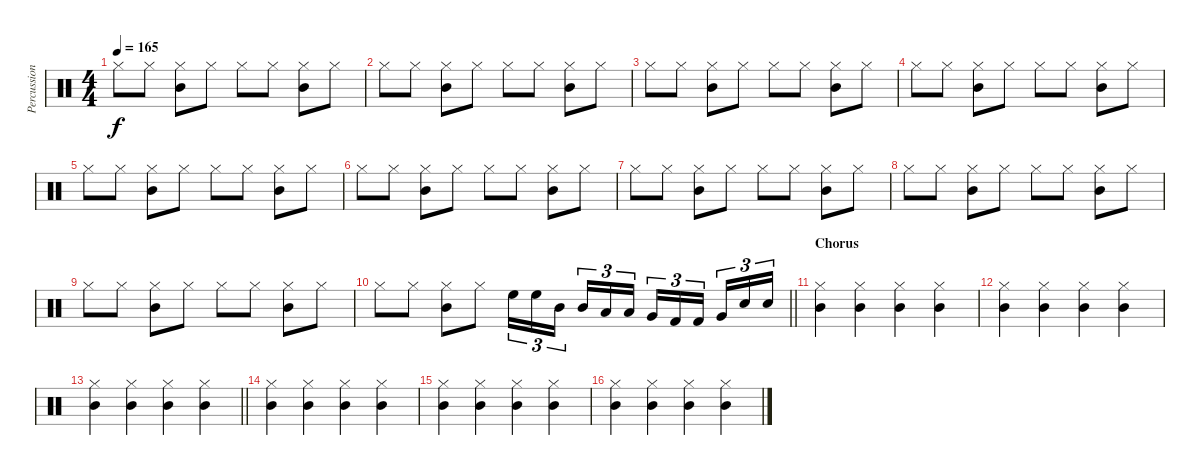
\track ("Percussion Improvisation" "Percussion") {instrument percussion}
\staff {score}
\articulation defaults
\ts (4 4)
\tempo 165
\clef neutral
\ks c "Hi-Hat (closed)".8{dy f} "Hi-Hat (closed)".8
("Hi-Hat (closed)" "Mid Tom (hit)").8 "Hi-Hat (closed)".8 "Hi-Hat (closed)".8 "Hi-Hat (closed)".8 ("Hi-Hat (closed)" "Mid Tom (hit)").8 "Hi-Hat (closed)".8 |
"Hi-Hat (closed)".8 "Hi-Hat (closed)".8 ("Hi-Hat (closed)" "Mid Tom (hit)").8 "Hi-Hat (closed)".8 "Hi-Hat (closed)".8 "Hi-Hat (closed)".8 ("Hi-Hat (closed)" "Mid Tom (hit)").8 "Hi-Hat (closed)".8 |
"Hi-Hat (closed)".8 "Hi-Hat (closed)".8 ("Hi-Hat (closed)" "Mid Tom (hit)").8 "Hi-Hat (closed)".8 "Hi-Hat (closed)".8 "Hi-Hat (closed)".8 ("Hi-Hat (closed)" "Mid Tom (hit)").8 "Hi-Hat (closed)".8 |
"Hi-Hat (closed)".8 "Hi-Hat (closed)".8 ("Hi-Hat (closed)" "Mid Tom (hit)").8 "Hi-Hat (closed)".8 "Hi-Hat (closed)".8 "Hi-Hat (closed)".8 ("Hi-Hat (closed)" "Mid Tom (hit)").8 "Hi-Hat (closed)".8 |
"Hi-Hat (closed)".8 "Hi-Hat (closed)".8 ("Hi-Hat (closed)" "Mid Tom (hit)").8 "Hi-Hat (closed)".8 "Hi-Hat (closed)".8 "Hi-Hat (closed)".8 ("Hi-Hat (closed)" "Mid Tom (hit)").8 "Hi-Hat (closed)".8 |
"Hi-Hat (closed)".8 "Hi-Hat (closed)".8 ("Hi-Hat (closed)" "Mid Tom (hit)").8 "Hi-Hat (closed)".8 "Hi-Hat (closed)".8 "Hi-Hat (closed)".8 ("Hi-Hat (closed)" "Mid Tom (hit)").8 "Hi-Hat (closed)".8 |
"Hi-Hat (closed)".8 "Hi-Hat (closed)".8 ("Hi-Hat (closed)" "Mid Tom (hit)").8 "Hi-Hat (closed)".8 "Hi-Hat (closed)".8 "Hi-Hat (closed)".8 ("Hi-Hat (closed)" "Mid Tom (hit)").8 "Hi-Hat (closed)".8 |
"Hi-Hat (closed)".8 "Hi-Hat (closed)".8 ("Hi-Hat (closed)" "Mid Tom (hit)").8 "Hi-Hat (closed)".8 "Hi-Hat (closed)".8 "Hi-Hat (closed)".8 ("Hi-Hat (closed)" "Mid Tom (hit)").8 "Hi-Hat (closed)".8 |
"Hi-Hat (closed)".8 "Hi-Hat (closed)".8 ("Hi-Hat (closed)" "Mid Tom (hit)").8 "Hi-Hat (closed)".8 "Hi-Hat (closed)".8 "Hi-Hat (closed)".8 ("Hi-Hat (closed)" "Mid Tom (hit)").8 "Hi-Hat (closed)".8 |
\barLineRight lightlight "Hi-Hat (closed)".8 "Hi-Hat (closed)".8
("Hi-Hat (closed)" "Mid Tom (hit)").8 "Hi-Hat (closed)".8 "High Floor Tom (hit)".16{tu (3 2)} "High Floor Tom (hit)".16{tu (3 2)} "Mid Tom (hit)".16{tu (3 2) beam splitsecondary} "Mid Tom (hit)".16{tu (3 2)} "Low Tom (hit)".16{tu (3 2)} "Low Tom (hit)".16{tu (3 2)} "Very Low Tom (hit)".16{tu (3 2)} "Kick (hit) 2".16{tu (3 2)} "Kick (hit) 2".16{tu (3 2) beam splitsecondary} "Very Low Tom (hit)".16{tu (3 2)} "Snare (hit) 2".16{tu (3 2)} "Snare (hit) 2".16{tu (3 2)} |
\section ("" "Chorus")
("Mid Tom (hit)" "Hi-Hat (closed)").4 ("Hi-Hat (closed)" "Mid Tom (hit)").4 ("Hi-Hat (closed)" "Mid Tom (hit)").4 ("Mid Tom (hit)" "Hi-Hat (closed)").4 |
("Hi-Hat (closed)" "Mid Tom (hit)").4 ("Mid Tom (hit)" "Hi-Hat (closed)").4 ("Hi-Hat (closed)" "Mid Tom (hit)").4 ("Hi-Hat (closed)" "Mid Tom (hit)").4 |
\barLineRight lightlight
("Hi-Hat (closed)" "Mid Tom (hit)").4 ("Mid Tom (hit)" "Hi-Hat (closed)").4 ("Hi-Hat (closed)" "Mid Tom (hit)").4 ("Hi-Hat (closed)" "Mid Tom (hit)").4 |
("Hi-Hat (closed)" "Mid Tom (hit)").4 ("Mid Tom (hit)" "Hi-Hat (closed)").4 ("Hi-Hat (closed)" "Mid Tom (hit)").4 ("Hi-Hat (closed)" "Mid Tom (hit)").4 |
("Hi-Hat (closed)" "Mid Tom (hit)").4 ("Mid Tom (hit)" "Hi-Hat (closed)").4 ("Hi-Hat (closed)" "Mid Tom (hit)").4 ("Hi-Hat (closed)" "Mid Tom (hit)").4 |
("Hi-Hat (closed)" "Mid Tom (hit)").4 ("Mid Tom (hit)" "Hi-Hat (closed)").4 ("Hi-Hat (closed)" "Mid Tom (hit)").4 ("Hi-Hat (closed)" "Mid Tom (hit)").4
